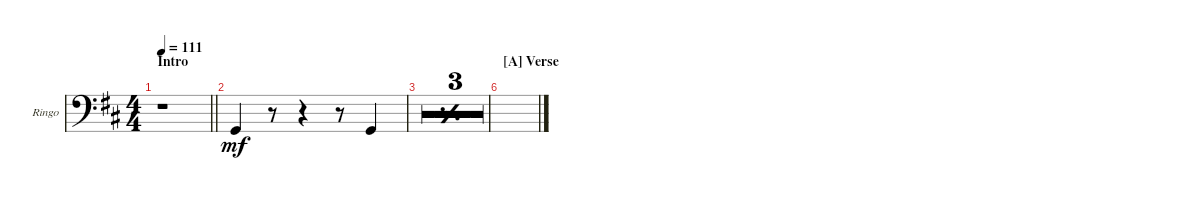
\defaultSystemsLayout 4
\bracketExtendMode groupsimilarinstruments
\firstSystemTrackNameOrientation horizontal
\otherSystemsTrackNameOrientation horizontal
\track ("Ringo Starr - Legs" "Ringo") {multiBarRest instrument percussion}
\staff {score}
\articulation defaults
\ts (4 4)
\section ("" "Intro")
\tempo 111
\clef f4
\scale
0.517241
\barLineRight lightlight
\ks d
r.1{dy mf} |
\scale
0.241379 "Kick (hit)".4 r.8 r.4 r.8 "Kick (hit)".4 |
\simile simple
\scale
0.241379 |
\scale
0.333333 |
\scale
0.333333 |
\section ("A" "Verse")
\scale
0.333333 |
\scale
0.333333 |
\scale
0.333333 |
\scale
0.333333 |
\scale
0.333333 |
\scale
0.333333 |
\scale
0.333333 |
\scale
0.333333 |
\scale
0.333333 |
\scale
0.333333 |
\scale
0.333333
